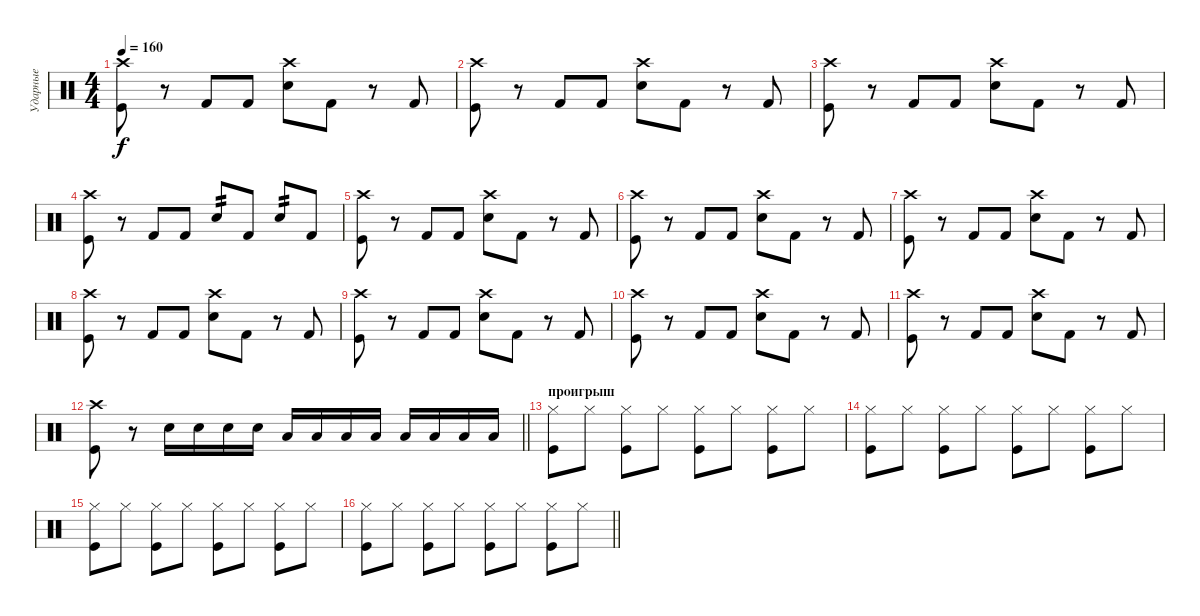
\track ("Ударные" "Ударные") {instrument percussion}
\staff {score}
\articulation defaults
\ts (4 4)
\tempo 160
\clef neutral
\ks c
("Kick (hit)" "Crash high (hit)").8{dy f} r.8 "Kick (hit) 2".8 "Kick (hit) 2".8 ("Snare (hit) 2" "Crash high (hit)").8 "Kick (hit) 2".8 r.8 "Kick (hit) 2".8 |
("Kick (hit)" "Crash high (hit)").8 r.8 "Kick (hit) 2".8 "Kick (hit) 2".8 ("Snare (hit) 2" "Crash high (hit)").8 "Kick (hit) 2".8 r.8 "Kick (hit) 2".8 |
("Kick (hit)" "Crash high (hit)").8 r.8 "Kick (hit) 2".8 "Kick (hit) 2".8 ("Snare (hit) 2" "Crash high (hit)").8 "Kick (hit) 2".8 r.8 "Kick (hit) 2".8 |
("Kick (hit)" "Crash high (hit)").8 r.8 "Kick (hit) 2".8 "Kick (hit) 2".8 "Snare (hit) 2".8{tp 2} "Kick (hit) 2".8 "Snare (hit) 2".8{tp 2} "Kick (hit) 2".8 |
("Kick (hit)" "Crash high (hit)").8 r.8 "Kick (hit) 2".8 "Kick (hit) 2".8 ("Snare (hit) 2" "Crash high (hit)").8 "Kick (hit) 2".8 r.8 "Kick (hit) 2".8 |
("Kick (hit)" "Crash high (hit)").8 r.8 "Kick (hit) 2".8 "Kick (hit) 2".8 ("Snare (hit) 2" "Crash high (hit)").8 "Kick (hit) 2".8 r.8 "Kick (hit) 2".8 |
("Kick (hit)" "Crash high (hit)").8 r.8 "Kick (hit) 2".8 "Kick (hit) 2".8 ("Snare (hit) 2" "Crash high (hit)").8 "Kick (hit) 2".8 r.8 "Kick (hit) 2".8 |
("Kick (hit)" "Crash high (hit)").8 r.8 "Kick (hit) 2".8 "Kick (hit) 2".8 ("Snare (hit) 2" "Crash high (hit)").8 "Kick (hit) 2".8 r.8 "Kick (hit) 2".8 |
("Kick (hit)" "Crash high (hit)").8 r.8 "Kick (hit) 2".8 "Kick (hit) 2".8 ("Snare (hit) 2" "Crash high (hit)").8 "Kick (hit) 2".8 r.8 "Kick (hit) 2".8 |
("Kick (hit)" "Crash high (hit)").8 r.8 "Kick (hit) 2".8 "Kick (hit) 2".8 ("Snare (hit) 2" "Crash high (hit)").8 "Kick (hit) 2".8 r.8 "Kick (hit) 2".8 |
("Kick (hit)" "Crash high (hit)").8 r.8 "Kick (hit) 2".8 "Kick (hit) 2".8 ("Snare (hit) 2" "Crash high (hit)").8 "Kick (hit) 2".8 r.8 "Kick (hit) 2".8 |
\barLineRight lightlight
("Kick (hit)" "Crash high (hit)").8 r.8 "Snare (hit) 2".16 "Snare (hit) 2".16 "Snare (hit) 2".16 "Snare (hit) 2".16 "Low Tom (hit)".16 "Low Tom (hit)".16 "Low Tom (hit)".16 "Low Tom (hit)".16 "Low Floor Tom (hit)".16 "Low Floor Tom (hit)".16 "Low Floor Tom (hit)".16 "Low Floor Tom (hit)".16 |
\section ("" "проигрыш")
("Kick (hit)" "Hi-Hat (closed)").8 "Hi-Hat (closed)".8 ("Kick (hit)" "Hi-Hat (closed)").8 "Hi-Hat (closed)".8 ("Kick (hit)" "Hi-Hat (closed)").8 "Hi-Hat (closed)".8 ("Kick (hit)" "Hi-Hat (closed)").8 "Hi-Hat (closed)".8 |
("Kick (hit)" "Hi-Hat (closed)").8 "Hi-Hat (closed)".8 ("Kick (hit)" "Hi-Hat (closed)").8 "Hi-Hat (closed)".8 ("Kick (hit)" "Hi-Hat (closed)").8 "Hi-Hat (closed)".8 ("Kick (hit)" "Hi-Hat (closed)").8 "Hi-Hat (closed)".8 |
("Kick (hit)" "Hi-Hat (closed)").8 "Hi-Hat (closed)".8 ("Kick (hit)" "Hi-Hat (closed)").8 "Hi-Hat (closed)".8 ("Kick (hit)" "Hi-Hat (closed)").8 "Hi-Hat (closed)".8 ("Kick (hit)" "Hi-Hat (closed)").8 "Hi-Hat (closed)".8 |
\barLineRight lightlight
("Kick (hit)" "Hi-Hat (closed)").8 "Hi-Hat (closed)".8 ("Kick (hit)" "Hi-Hat (closed)").8 "Hi-Hat (closed)".8 ("Kick (hit)" "Hi-Hat (closed)").8 "Hi-Hat (closed)".8 ("Kick (hit)" "Hi-Hat (closed)").8 "Hi-Hat (closed)".8
